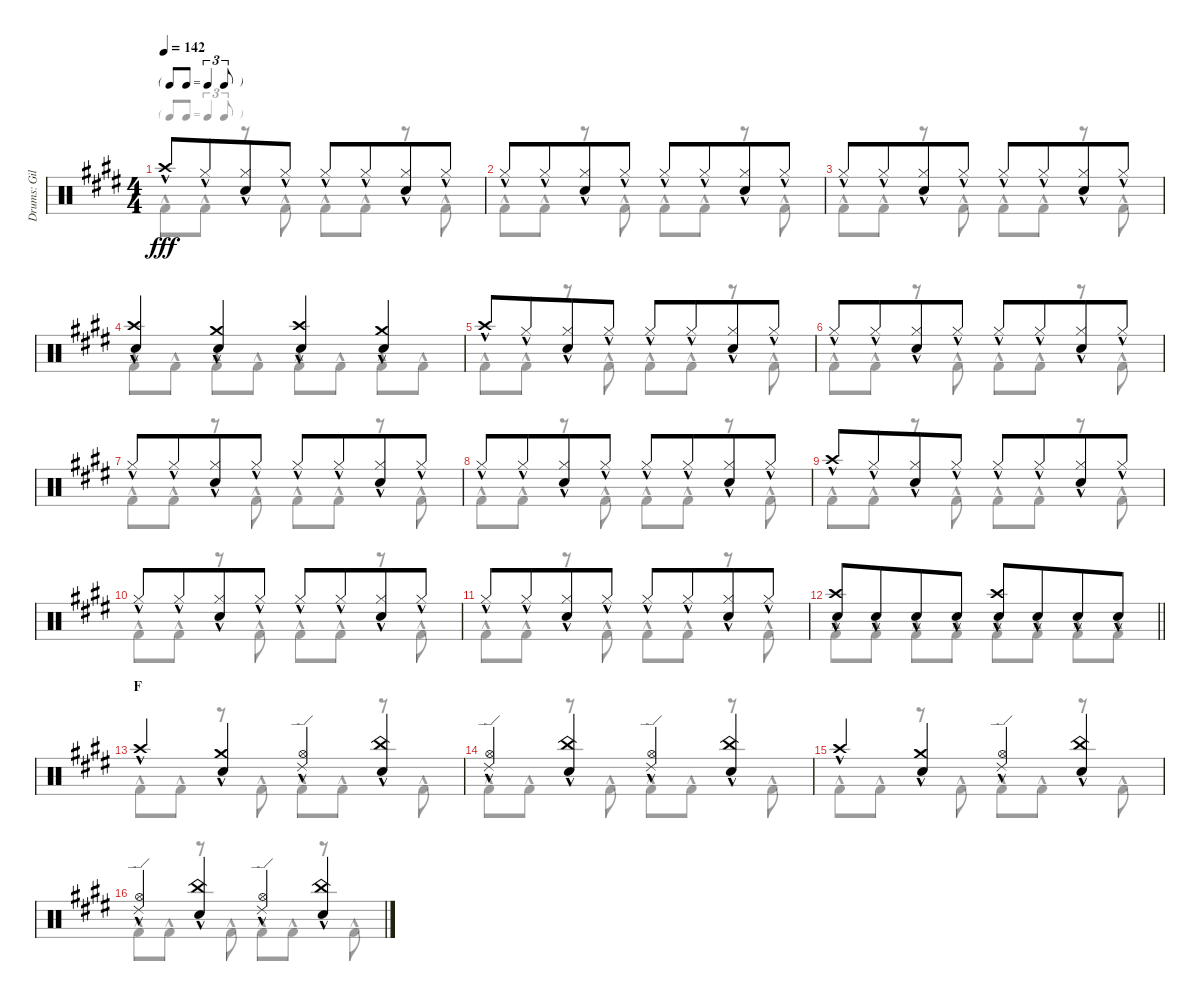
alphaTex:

\track ("Drums: Gil" "Drums: Gil") {instrument percussion}
\staff {score}
\articulation defaults
\voice
\ts (4 4)
\tf triplet8th
\tempo 142
\clef neutral
\ks e "Crash high (hit)"{hac}.8{dy fff} "Hi-Hat (closed)"{hac}.8{beam merge}
("Hi-Hat (closed)"{hac} "Snare (hit) 2"{hac}).8 "Hi-Hat (closed)"{hac}.8 "Hi-Hat (closed)"{hac}.8 "Hi-Hat (closed)"{hac}.8{beam merge} ("Hi-Hat (closed)"{hac} "Snare (hit) 2"{hac}).8 "Hi-Hat (closed)"{hac}.8 |
"Hi-Hat (closed)"{hac}.8 "Hi-Hat (closed)"{hac}.8{beam merge} ("Hi-Hat (closed)"{hac} "Snare (hit) 2"{hac}).8 "Hi-Hat (closed)"{hac}.8 "Hi-Hat (closed)"{hac}.8 "Hi-Hat (closed)"{hac}.8{beam merge} ("Hi-Hat (closed)"{hac} "Snare (hit) 2"{hac}).8 "Hi-Hat (closed)"{hac}.8 |
"Hi-Hat (closed)"{hac}.8 "Hi-Hat (closed)"{hac}.8{beam merge} ("Hi-Hat (closed)"{hac} "Snare (hit) 2"{hac}).8 "Hi-Hat (closed)"{hac}.8 "Hi-Hat (closed)"{hac}.8 "Hi-Hat (closed)"{hac}.8{beam merge} ("Hi-Hat (closed)"{hac} "Snare (hit) 2"{hac}).8 "Hi-Hat (closed)"{hac}.8 |
("Crash high (hit)"{hac} "Snare (hit) 2"{hac}).4 ("Crash medium (hit)"{hac} "Snare (hit) 2"{hac}).4 ("Crash high (hit)"{hac} "Snare (hit) 2"{hac}).4 ("Crash medium (hit)"{hac} "Snare (hit) 2"{hac}).4 |
"Crash high (hit)"{hac}.8 "Hi-Hat (closed)"{hac}.8{beam merge} ("Hi-Hat (closed)"{hac} "Snare (hit) 2"{hac}).8 "Hi-Hat (closed)"{hac}.8 "Hi-Hat (closed)"{hac}.8 "Hi-Hat (closed)"{hac}.8{beam merge} ("Hi-Hat (closed)"{hac} "Snare (hit) 2"{hac}).8 "Hi-Hat (closed)"{hac}.8 |
"Hi-Hat (closed)"{hac}.8 "Hi-Hat (closed)"{hac}.8{beam merge} ("Hi-Hat (closed)"{hac} "Snare (hit) 2"{hac}).8 "Hi-Hat (closed)"{hac}.8 "Hi-Hat (closed)"{hac}.8 "Hi-Hat (closed)"{hac}.8{beam merge} ("Hi-Hat (closed)"{hac} "Snare (hit) 2"{hac}).8 "Hi-Hat (closed)"{hac}.8 |
"Hi-Hat (closed)"{hac}.8 "Hi-Hat (closed)"{hac}.8{beam merge} ("Hi-Hat (closed)"{hac} "Snare (hit) 2"{hac}).8 "Hi-Hat (closed)"{hac}.8 "Hi-Hat (closed)"{hac}.8 "Hi-Hat (closed)"{hac}.8{beam merge} ("Hi-Hat (closed)"{hac} "Snare (hit) 2"{hac}).8 "Hi-Hat (closed)"{hac}.8 |
"Hi-Hat (closed)"{hac}.8 "Hi-Hat (closed)"{hac}.8{beam merge} ("Hi-Hat (closed)"{hac} "Snare (hit) 2"{hac}).8 "Hi-Hat (closed)"{hac}.8 "Hi-Hat (closed)"{hac}.8 "Hi-Hat (closed)"{hac}.8{beam merge} ("Hi-Hat (closed)"{hac} "Snare (hit) 2"{hac}).8 "Hi-Hat (closed)"{hac}.8 |
"Crash high (hit)"{hac}.8 "Hi-Hat (closed)"{hac}.8{beam merge} ("Hi-Hat (closed)"{hac} "Snare (hit) 2"{hac}).8 "Hi-Hat (closed)"{hac}.8 "Hi-Hat (closed)"{hac}.8 "Hi-Hat (closed)"{hac}.8{beam merge} ("Hi-Hat (closed)"{hac} "Snare (hit) 2"{hac}).8 "Hi-Hat (closed)"{hac}.8 |
"Hi-Hat (closed)"{hac}.8 "Hi-Hat (closed)"{hac}.8{beam merge} ("Hi-Hat (closed)"{hac} "Snare (hit) 2"{hac}).8 "Hi-Hat (closed)"{hac}.8 "Hi-Hat (closed)"{hac}.8 "Hi-Hat (closed)"{hac}.8{beam merge} ("Hi-Hat (closed)"{hac} "Snare (hit) 2"{hac}).8 "Hi-Hat (closed)"{hac}.8 |
"Hi-Hat (closed)"{hac}.8 "Hi-Hat (closed)"{hac}.8{beam merge} ("Hi-Hat (closed)"{hac} "Snare (hit) 2"{hac}).8 "Hi-Hat (closed)"{hac}.8 "Hi-Hat (closed)"{hac}.8 "Hi-Hat (closed)"{hac}.8{beam merge} ("Hi-Hat (closed)"{hac} "Snare (hit) 2"{hac}).8 "Hi-Hat (closed)"{hac}.8 |
\barLineRight lightlight
("Crash high (hit)"{hac} "Snare (hit) 2"{hac}).8 "Snare (hit) 2"{hac}.8{beam merge} "Snare (hit) 2"{hac}.8 "Snare (hit) 2"{hac}.8 ("Crash high (hit)"{hac} "Snare (hit) 2"{hac}).8 "Snare (hit) 2"{hac}.8{beam merge} "Snare (hit) 2"{hac}.8 "Snare (hit) 2"{hac}.8 |
\section ("" "F")
"Crash high (hit)"{hac}.4 ("Crash medium (hit)"{hac} "Snare (hit) 2"{hac}).4 ("Ride (edge) 2"{hac} "Hi-Hat (open)"{hac}).4 ("China (hit)"{hac} "Snare (hit) 2"{hac}).4 |
("Ride (edge) 2"{hac} "Hi-Hat (open)"{hac}).4 ("China (hit)"{hac} "Snare (hit) 2"{hac}).4 ("Ride (edge) 2"{hac} "Hi-Hat (open)"{hac}).4 ("China (hit)"{hac} "Snare (hit) 2"{hac}).4 |
"Crash high (hit)"{hac}.4 ("Crash medium (hit)"{hac} "Snare (hit) 2"{hac}).4 ("Ride (edge) 2"{hac} "Hi-Hat (open)"{hac}).4 ("China (hit)"{hac} "Snare (hit) 2"{hac}).4 |
("Ride (edge) 2"{hac} "Hi-Hat (open)"{hac}).4 ("China (hit)"{hac} "Snare (hit) 2"{hac}).4 ("Ride (edge) 2"{hac} "Hi-Hat (open)"{hac}).4 ("China (hit)"{hac} "Snare (hit) 2"{hac}).4
\voice
\clef neutral
\ottava regular
\simile none
\ks e "Kick (hit) 2"{hac}.8{dy fff} "Kick (hit) 2"{hac}.8
r.8 "Kick (hit) 2"{hac}.8 "Kick (hit) 2"{hac}.8 "Kick (hit) 2"{hac}.8 r.8 "Kick (hit) 2"{hac}.8 |
"Kick (hit) 2"{hac}.8 "Kick (hit) 2"{hac}.8 r.8 "Kick (hit) 2"{hac}.8 "Kick (hit) 2"{hac}.8 "Kick (hit) 2"{hac}.8 r.8 "Kick (hit) 2"{hac}.8 |
"Kick (hit) 2"{hac}.8 "Kick (hit) 2"{hac}.8 r.8 "Kick (hit) 2"{hac}.8 "Kick (hit) 2"{hac}.8 "Kick (hit) 2"{hac}.8 r.8 "Kick (hit) 2"{hac}.8 |
"Kick (hit) 2"{hac}.8 "Kick (hit) 2"{hac}.8 "Kick (hit) 2"{hac}.8 "Kick (hit) 2"{hac}.8 "Kick (hit) 2"{hac}.8 "Kick (hit) 2"{hac}.8 "Kick (hit) 2"{hac}.8 "Kick (hit) 2"{hac}.8 |
"Kick (hit) 2"{hac}.8 "Kick (hit) 2"{hac}.8 r.8 "Kick (hit) 2"{hac}.8 "Kick (hit) 2"{hac}.8 "Kick (hit) 2"{hac}.8 r.8 "Kick (hit) 2"{hac}.8 |
"Kick (hit) 2"{hac}.8 "Kick (hit) 2"{hac}.8 r.8 "Kick (hit) 2"{hac}.8 "Kick (hit) 2"{hac}.8 "Kick (hit) 2"{hac}.8 r.8 "Kick (hit) 2"{hac}.8 |
"Kick (hit) 2"{hac}.8 "Kick (hit) 2"{hac}.8 r.8 "Kick (hit) 2"{hac}.8 "Kick (hit) 2"{hac}.8 "Kick (hit) 2"{hac}.8 r.8 "Kick (hit) 2"{hac}.8 |
"Kick (hit) 2"{hac}.8 "Kick (hit) 2"{hac}.8 r.8 "Kick (hit) 2"{hac}.8 "Kick (hit) 2"{hac}.8 "Kick (hit) 2"{hac}.8 r.8 "Kick (hit) 2"{hac}.8 |
"Kick (hit) 2"{hac}.8 "Kick (hit) 2"{hac}.8 r.8 "Kick (hit) 2"{hac}.8 "Kick (hit) 2"{hac}.8 "Kick (hit) 2"{hac}.8 r.8 "Kick (hit) 2"{hac}.8 |
"Kick (hit) 2"{hac}.8 "Kick (hit) 2"{hac}.8 r.8 "Kick (hit) 2"{hac}.8 "Kick (hit) 2"{hac}.8 "Kick (hit) 2"{hac}.8 r.8 "Kick (hit) 2"{hac}.8 |
"Kick (hit) 2"{hac}.8 "Kick (hit) 2"{hac}.8 r.8 "Kick (hit) 2"{hac}.8 "Kick (hit) 2"{hac}.8 "Kick (hit) 2"{hac}.8 r.8 "Kick (hit) 2"{hac}.8 |
\barLineRight lightlight "Kick (hit) 2"{hac}.8 "Kick (hit) 2"{hac}.8 "Kick (hit) 2"{hac}.8 "Kick (hit) 2"{hac}.8 "Kick (hit) 2"{hac}.8 "Kick (hit) 2"{hac}.8 "Kick (hit) 2"{hac}.8 "Kick (hit) 2"{hac}.8
|
"Kick (hit) 2"{hac}.8 "Kick (hit) 2"{hac}.8 r.8 "Kick (hit) 2"{hac}.8 "Kick (hit) 2"{hac}.8 "Kick (hit) 2"{hac}.8 r.8 "Kick (hit) 2"{hac}.8 |
"Kick (hit) 2"{hac}.8 "Kick (hit) 2"{hac}.8 r.8 "Kick (hit) 2"{hac}.8 "Kick (hit) 2"{hac}.8 "Kick (hit) 2"{hac}.8 r.8 "Kick (hit) 2"{hac}.8 |
"Kick (hit) 2"{hac}.8 "Kick (hit) 2"{hac}.8 r.8 "Kick (hit) 2"{hac}.8 "Kick (hit) 2"{hac}.8 "Kick (hit) 2"{hac}.8 r.8 "Kick (hit) 2"{hac}.8 |
"Kick (hit) 2"{hac}.8 "Kick (hit) 2"{hac}.8 r.8 "Kick (hit) 2"{hac}.8 "Kick (hit) 2"{hac}.8 "Kick (hit) 2"{hac}.8 r.8 "Kick (hit) 2"{hac}.8
